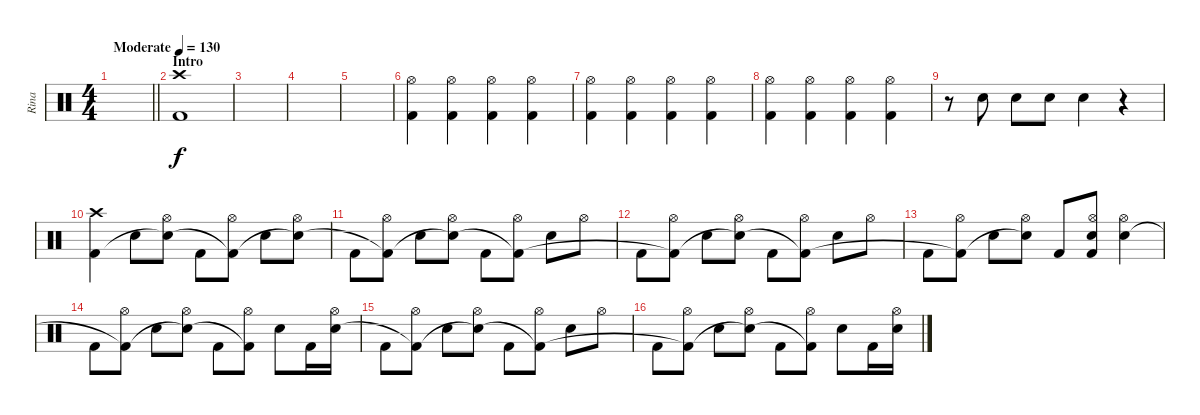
\track ("Rina" "Rina") {instrument percussion}
\staff {score}
\articulation defaults
\ts (4 4)
\tempo (130 "Moderate")
\clef neutral
\barLineRight lightlight
\ks c
|
\section ("" "Intro")
("Crash high (hit)" "Kick (hit) 2").1 |
|
|
|
("Hi-Hat (open)" "Kick (hit) 2").4 ("Hi-Hat (open)" "Kick (hit) 2").4 ("Hi-Hat (open)" "Kick (hit) 2").4 ("Hi-Hat (open)" "Kick (hit) 2").4 |
("Hi-Hat (open)" "Kick (hit) 2").4 ("Hi-Hat (open)" "Kick (hit) 2").4 ("Hi-Hat (open)" "Kick (hit) 2").4 ("Hi-Hat (open)" "Kick (hit) 2").4 |
("Hi-Hat (open)" "Kick (hit) 2").4 ("Hi-Hat (open)" "Kick (hit) 2").4 ("Hi-Hat (open)" "Kick (hit) 2").4 ("Hi-Hat (open)" "Kick (hit) 2").4 |
r.8 "Snare (hit) 2".8 "Snare (hit) 2".8 "Snare (hit) 2".8 "Snare (hit) 2".4 r.4 |
("Crash high (hit)" "Kick (hit) 2").4 "Snare (hit) 2".8 ("Hi-Hat (open)" "Snare (hit) 2"{t}).8 "Kick (hit) 2".8 ("Hi-Hat (open)" "Kick (hit) 2"{t}).8 "Snare (hit) 2".8 ("Hi-Hat (open)" "Snare (hit) 2"{t}).8 |
"Kick (hit) 2".8 ("Hi-Hat (open)" "Kick (hit) 2"{t}).8 "Snare (hit) 2".8 ("Hi-Hat (open)" "Snare (hit) 2"{t}).8 "Kick (hit) 2".8 ("Hi-Hat (open)" "Kick (hit) 2"{t}).8 "Snare (hit) 2".8 "Hi-Hat (open)".8 |
"Kick (hit) 2".8 ("Hi-Hat (open)" "Kick (hit) 2"{t}).8 "Snare (hit) 2".8 ("Hi-Hat (open)" "Snare (hit) 2"{t}).8 "Kick (hit) 2".8 ("Hi-Hat (open)" "Kick (hit) 2"{t}).8 "Snare (hit) 2".8 "Hi-Hat (open)".8 |
"Kick (hit) 2".8 ("Hi-Hat (open)" "Kick (hit) 2"{t}).8 "Snare (hit) 2".8 ("Hi-Hat (open)" "Snare (hit) 2"{t}).8 "Kick (hit) 2".8 ("Hi-Hat (open)" "Snare (hit) 2" "Kick (hit) 2").8 ("Hi-Hat (open)" "Snare (hit) 2").4 |
"Kick (hit) 2".8 ("Hi-Hat (open)" "Kick (hit) 2"{t}).8 "Snare (hit) 2".8 ("Hi-Hat (open)" "Snare (hit) 2"{t}).8 "Kick (hit) 2".8 ("Hi-Hat (open)" "Kick (hit) 2"{t}).8 "Snare (hit) 2".8 "Kick (hit) 2".16 ("Hi-Hat (open)" "Snare (hit) 2").16 |
"Kick (hit) 2".8 ("Hi-Hat (open)" "Kick (hit) 2"{t}).8 "Snare (hit) 2".8 ("Hi-Hat (open)" "Snare (hit) 2"{t}).8 "Kick (hit) 2".8 ("Hi-Hat (open)" "Kick (hit) 2"{t}).8 "Snare (hit) 2".8 "Hi-Hat (open)".8 |
"Kick (hit) 2".8 ("Hi-Hat (open)" "Kick (hit) 2"{t}).8 "Snare (hit) 2".8 ("Hi-Hat (open)" "Snare (hit) 2"{t}).8 "Kick (hit) 2".8 ("Hi-Hat (open)" "Kick (hit) 2"{t}).8 "Snare (hit) 2".8 "Kick (hit) 2".16 ("Hi-Hat (open)" "Snare (hit) 2").16
